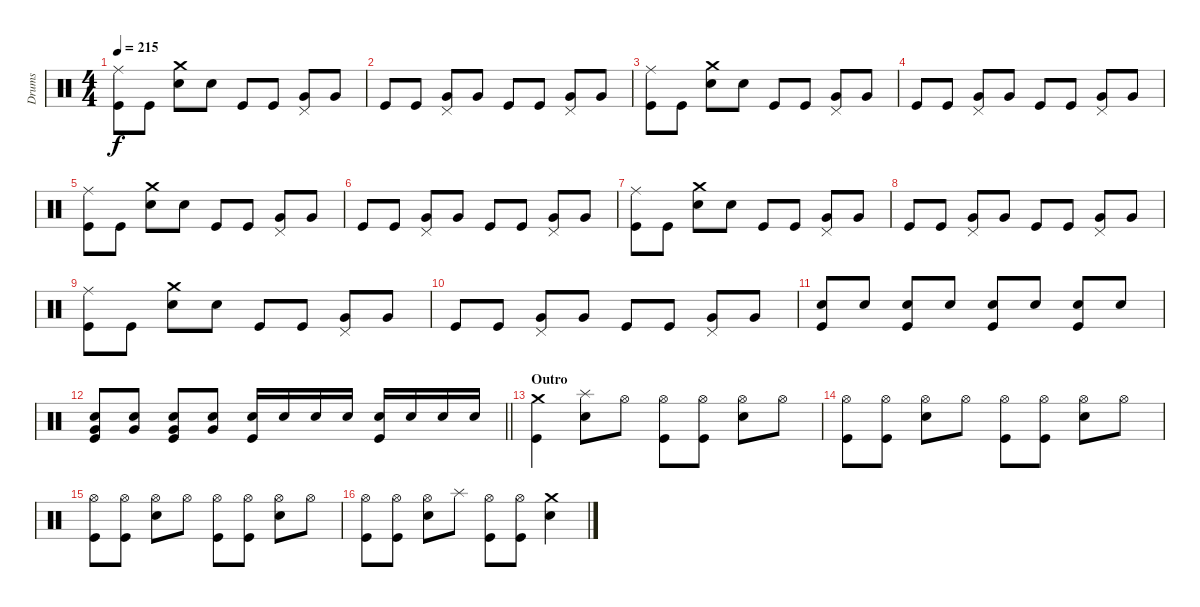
\track ("Drums" "Drums") {instrument percussion}
\staff {score}
\articulation defaults
\ts (4 4)
\tempo 215
\clef neutral
\ks c
("Kick (hit)" "Ride (middle)").8{dy f} "Kick (hit)".8 ("Snare (hit) 2" "Crash medium (hit)").8 "Snare (hit) 2".8 "Kick (hit)".8 "Kick (hit)".8 ("Very Low Tom (hit)" "Pedal Hi-Hat (hit)").8 "Very Low Tom (hit)".8 |
"Kick (hit)".8 "Kick (hit)".8 ("Very Low Tom (hit)" "Pedal Hi-Hat (hit)").8 "Very Low Tom (hit)".8 "Kick (hit)".8 "Kick (hit)".8 ("Very Low Tom (hit)" "Pedal Hi-Hat (hit)").8 "Very Low Tom (hit)".8 |
("Kick (hit)" "Ride (middle)").8 "Kick (hit)".8 ("Snare (hit) 2" "Crash medium (hit)").8 "Snare (hit) 2".8 "Kick (hit)".8 "Kick (hit)".8 ("Very Low Tom (hit)" "Pedal Hi-Hat (hit)").8 "Very Low Tom (hit)".8 |
"Kick (hit)".8 "Kick (hit)".8 ("Very Low Tom (hit)" "Pedal Hi-Hat (hit)").8 "Very Low Tom (hit)".8 "Kick (hit)".8 "Kick (hit)".8 ("Very Low Tom (hit)" "Pedal Hi-Hat (hit)").8 "Very Low Tom (hit)".8 |
("Kick (hit)" "Ride (middle)").8 "Kick (hit)".8 ("Snare (hit) 2" "Crash medium (hit)").8 "Snare (hit) 2".8 "Kick (hit)".8 "Kick (hit)".8 ("Very Low Tom (hit)" "Pedal Hi-Hat (hit)").8 "Very Low Tom (hit)".8 |
"Kick (hit)".8 "Kick (hit)".8 ("Very Low Tom (hit)" "Pedal Hi-Hat (hit)").8 "Very Low Tom (hit)".8 "Kick (hit)".8 "Kick (hit)".8 ("Very Low Tom (hit)" "Pedal Hi-Hat (hit)").8 "Very Low Tom (hit)".8 |
("Kick (hit)" "Ride (middle)").8 "Kick (hit)".8 ("Snare (hit) 2" "Crash medium (hit)").8 "Snare (hit) 2".8 "Kick (hit)".8 "Kick (hit)".8 ("Very Low Tom (hit)" "Pedal Hi-Hat (hit)").8 "Very Low Tom (hit)".8 |
"Kick (hit)".8 "Kick (hit)".8 ("Very Low Tom (hit)" "Pedal Hi-Hat (hit)").8 "Very Low Tom (hit)".8 "Kick (hit)".8 "Kick (hit)".8 ("Very Low Tom (hit)" "Pedal Hi-Hat (hit)").8 "Very Low Tom (hit)".8 |
("Kick (hit)" "Ride (middle)").8 "Kick (hit)".8 ("Snare (hit) 2" "Crash medium (hit)").8 "Snare (hit) 2".8 "Kick (hit)".8 "Kick (hit)".8 ("Very Low Tom (hit)" "Pedal Hi-Hat (hit)").8 "Very Low Tom (hit)".8 |
"Kick (hit)".8 "Kick (hit)".8 ("Very Low Tom (hit)" "Pedal Hi-Hat (hit)").8 "Very Low Tom (hit)".8 "Kick (hit)".8 "Kick (hit)".8 ("Very Low Tom (hit)" "Pedal Hi-Hat (hit)").8 "Very Low Tom (hit)".8 |
("Snare (hit) 2" "Kick (hit)").8 "Snare (hit) 2".8 ("Snare (hit) 2" "Kick (hit)").8 "Snare (hit) 2".8 ("Snare (hit) 2" "Kick (hit)").8 "Snare (hit) 2".8 ("Snare (hit) 2" "Kick (hit)").8 "Snare (hit) 2".8 |
\barLineRight lightlight
("Kick (hit)" "Very Low Tom (hit)" "Snare (hit) 2").8 ("Very Low Tom (hit)" "Snare (hit) 2").8 ("Kick (hit)" "Very Low Tom (hit)" "Snare (hit) 2").8 ("Very Low Tom (hit)" "Snare (hit) 2").8 ("Snare (hit) 2" "Kick (hit)").16 "Snare (hit) 2".16 "Snare (hit) 2".16 "Snare (hit) 2".16 ("Snare (hit) 2" "Kick (hit)").16 "Snare (hit) 2".16 "Snare (hit) 2".16 "Snare (hit) 2".16 |
\section ("" "Outro")
("Kick (hit)" "Crash medium (hit)").4 ("Snare (hit) 2" "Splash (hit)").8 "Hi-Hat (open)".8 ("Kick (hit)" "Hi-Hat (open)").8 ("Kick (hit)" "Hi-Hat (open)").8 ("Snare (hit) 2" "Hi-Hat (open)").8 "Hi-Hat (open)".8 |
("Kick (hit)" "Hi-Hat (open)").8 ("Kick (hit)" "Hi-Hat (open)").8 ("Snare (hit) 2" "Hi-Hat (open)").8 "Hi-Hat (open)".8 ("Kick (hit)" "Hi-Hat (open)").8 ("Kick (hit)" "Hi-Hat (open)").8 ("Snare (hit) 2" "Hi-Hat (open)").8 "Hi-Hat (open)".8 |
("Kick (hit)" "Hi-Hat (open)").8 ("Kick (hit)" "Hi-Hat (open)").8 ("Snare (hit) 2" "Hi-Hat (open)").8 "Hi-Hat (open)".8 ("Kick (hit)" "Hi-Hat (open)").8 ("Kick (hit)" "Hi-Hat (open)").8 ("Snare (hit) 2" "Hi-Hat (open)").8 "Hi-Hat (open)".8 |
("Kick (hit)" "Hi-Hat (open)").8 ("Kick (hit)" "Hi-Hat (open)").8 ("Snare (hit) 2" "Hi-Hat (open)").8 "Splash (hit)".8 ("Kick (hit)" "Hi-Hat (open)").8 ("Kick (hit)" "Hi-Hat (open)").8 ("Snare (hit) 2" "Crash medium (hit)").4
